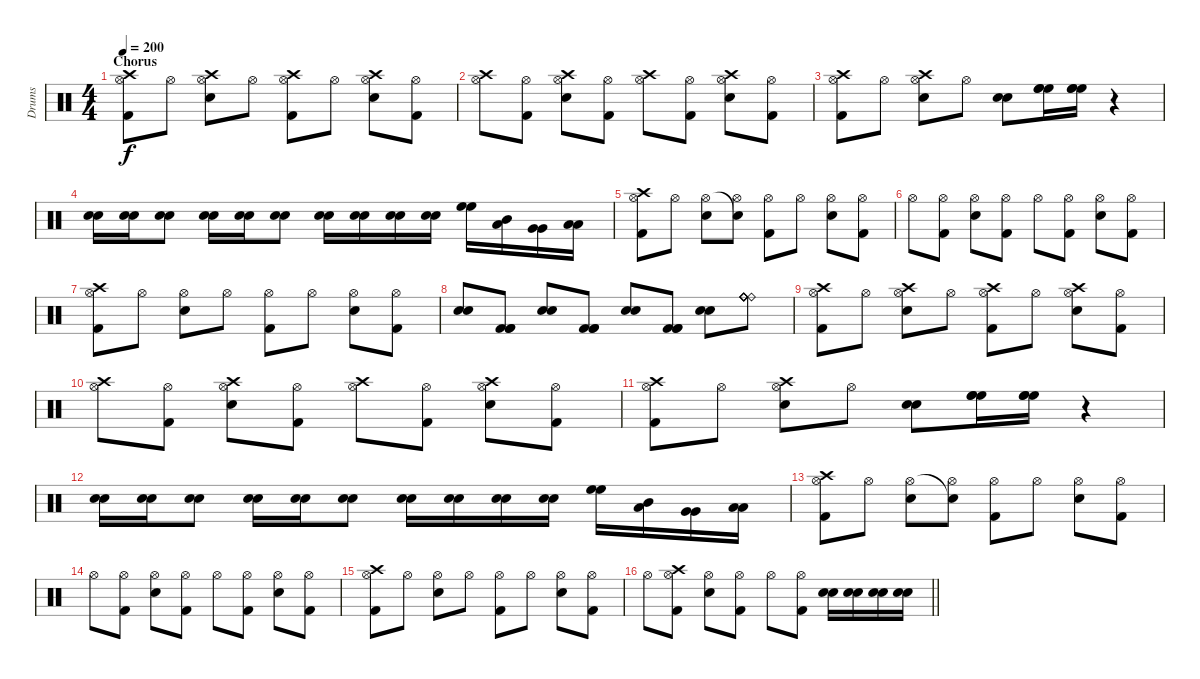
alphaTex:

\track ("Drums" "Drums") {instrument percussion}
\staff {score}
\articulation defaults
\ts (4 4)
\section ("" "Chorus")
\tempo 200
\clef neutral
\ks c
("Crash high (hit)" "Hi-Hat (open)" "Kick (hit) 2").8{dy f} "Hi-Hat (open)".8 ("Crash high (hit)" "Hi-Hat (open)" "Electric Snare (hit)").8 "Hi-Hat (open)".8 ("Crash high (hit)" "Hi-Hat (open)" "Kick (hit) 2").8 "Hi-Hat (open)".8 ("Crash high (hit)" "Hi-Hat (open)" "Electric Snare (hit)").8 ("Hi-Hat (open)" "Kick (hit) 2").8 |
("Crash high (hit)" "Hi-Hat (open)").8 ("Hi-Hat (open)" "Kick (hit) 2").8 ("Crash high (hit)" "Hi-Hat (open)" "Electric Snare (hit)").8 ("Hi-Hat (open)" "Kick (hit) 2").8 ("Crash high (hit)" "Hi-Hat (open)").8 ("Hi-Hat (open)" "Kick (hit) 2").8 ("Crash high (hit)" "Hi-Hat (open)" "Electric Snare (hit)").8 ("Hi-Hat (open)" "Kick (hit) 2").8 |
("Crash high (hit)" "Hi-Hat (open)" "Kick (hit) 2").8 "Hi-Hat (open)".8 ("Crash high (hit)" "Hi-Hat (open)" "Electric Snare (hit)").8 "Hi-Hat (open)".8 ("Snare (hit) 2" "Electric Snare (hit)").8 ("High Floor Tom (hit)" "High Floor Tom (hit)" "High Floor Tom (hit)").16 ("High Floor Tom (hit)" "High Floor Tom (hit)" "High Floor Tom (hit)").16 r.4 |
("Snare (hit) 2" "Electric Snare (hit)").16 ("Snare (hit) 2" "Electric Snare (hit)").16 ("Snare (hit) 2" "Electric Snare (hit)").8 ("Snare (hit) 2" "Electric Snare (hit)").16 ("Snare (hit) 2" "Electric Snare (hit)").16 ("Snare (hit) 2" "Electric Snare (hit)").8 ("Snare (hit) 2" "Electric Snare (hit)").16 ("Snare (hit) 2" "Electric Snare (hit)").16 ("Snare (hit) 2" "Electric Snare (hit)").16 ("Snare (hit) 2" "Electric Snare (hit)").16 ("High Floor Tom (hit)" "High Floor Tom (hit)").16 ("Low Tom (hit)" "Mid Tom (hit)").16 ("Very Low Tom (hit)" "Very Low Tom (hit)").16 ("Low Floor Tom (hit)" "Low Floor Tom (hit)").16 |
("Crash high (hit)" "Hi-Hat (open)" "Kick (hit) 2").8 "Hi-Hat (open)".8 ("Hi-Hat (open)" "Electric Snare (hit)").8 ("Snare (hit)"{t} "Hi-Hat (open)").8 ("Hi-Hat (open)" "Kick (hit) 2").8 "Hi-Hat (open)".8 ("Hi-Hat (open)" "Electric Snare (hit)").8 ("Hi-Hat (open)" "Kick (hit) 2").8 |
"Hi-Hat (open)".8 ("Hi-Hat (open)" "Kick (hit) 2").8 ("Hi-Hat (open)" "Electric Snare (hit)").8 ("Hi-Hat (open)" "Kick (hit) 2").8 "Hi-Hat (open)".8 ("Hi-Hat (open)" "Kick (hit) 2").8 ("Hi-Hat (open)" "Electric Snare (hit)").8 ("Hi-Hat (open)" "Kick (hit) 2").8 |
("Crash high (hit)" "Hi-Hat (open)" "Kick (hit) 2").8 "Hi-Hat (open)".8 ("Hi-Hat (open)" "Electric Snare (hit)").8 "Hi-Hat (open)".8 ("Hi-Hat (open)" "Kick (hit) 2").8 "Hi-Hat (open)".8 ("Hi-Hat (open)" "Electric Snare (hit)").8 ("Hi-Hat (open)" "Kick (hit) 2").8 |
("Snare (hit) 2" "Electric Snare (hit)").8 ("Kick (hit) 2" "Kick (hit) 2" "Kick (hit) 2").8 ("Snare (hit) 2" "Electric Snare (hit)").8 ("Kick (hit) 2" "Kick (hit) 2" "Kick (hit) 2").8 ("Snare (hit) 2" "Electric Snare (hit)").8 ("Kick (hit) 2" "Kick (hit) 2" "Kick (hit) 2").8 ("Snare (hit) 2" "Electric Snare (hit)").8 ("Ride (bell)" "Ride (bell)" "Ride (bell)" "Ride (bell)" "Ride (bell)" "Ride (bell)").8 |
("Crash high (hit)" "Hi-Hat (open)" "Kick (hit) 2").8 "Hi-Hat (open)".8 ("Crash high (hit)" "Hi-Hat (open)" "Electric Snare (hit)").8 "Hi-Hat (open)".8 ("Crash high (hit)" "Hi-Hat (open)" "Kick (hit) 2").8 "Hi-Hat (open)".8 ("Crash high (hit)" "Hi-Hat (open)" "Electric Snare (hit)").8 ("Hi-Hat (open)" "Kick (hit) 2").8 |
("Crash high (hit)" "Hi-Hat (open)").8 ("Hi-Hat (open)" "Kick (hit) 2").8 ("Crash high (hit)" "Hi-Hat (open)" "Electric Snare (hit)").8 ("Hi-Hat (open)" "Kick (hit) 2").8 ("Crash high (hit)" "Hi-Hat (open)").8 ("Hi-Hat (open)" "Kick (hit) 2").8 ("Crash high (hit)" "Hi-Hat (open)" "Electric Snare (hit)").8 ("Hi-Hat (open)" "Kick (hit) 2").8 |
("Crash high (hit)" "Hi-Hat (open)" "Kick (hit) 2").8 "Hi-Hat (open)".8 ("Crash high (hit)" "Hi-Hat (open)" "Electric Snare (hit)").8 "Hi-Hat (open)".8 ("Snare (hit) 2" "Electric Snare (hit)").8 ("High Floor Tom (hit)" "High Floor Tom (hit)" "High Floor Tom (hit)").16 ("High Floor Tom (hit)" "High Floor Tom (hit)" "High Floor Tom (hit)").16 r.4 |
("Snare (hit) 2" "Electric Snare (hit)").16 ("Snare (hit) 2" "Electric Snare (hit)").16 ("Snare (hit) 2" "Electric Snare (hit)").8 ("Snare (hit) 2" "Electric Snare (hit)").16 ("Snare (hit) 2" "Electric Snare (hit)").16 ("Snare (hit) 2" "Electric Snare (hit)").8 ("Snare (hit) 2" "Electric Snare (hit)").16 ("Snare (hit) 2" "Electric Snare (hit)").16 ("Snare (hit) 2" "Electric Snare (hit)").16 ("Snare (hit) 2" "Electric Snare (hit)").16 ("High Floor Tom (hit)" "High Floor Tom (hit)").16 ("Low Tom (hit)" "Mid Tom (hit)").16 ("Very Low Tom (hit)" "Very Low Tom (hit)").16 ("Low Floor Tom (hit)" "Low Floor Tom (hit)").16 |
("Crash high (hit)" "Hi-Hat (open)" "Kick (hit) 2").8 "Hi-Hat (open)".8 ("Hi-Hat (open)" "Electric Snare (hit)").8 ("Snare (hit)"{t} "Hi-Hat (open)").8 ("Hi-Hat (open)" "Kick (hit) 2").8 "Hi-Hat (open)".8 ("Hi-Hat (open)" "Electric Snare (hit)").8 ("Hi-Hat (open)" "Kick (hit) 2").8 |
"Hi-Hat (open)".8 ("Hi-Hat (open)" "Kick (hit) 2").8 ("Hi-Hat (open)" "Electric Snare (hit)").8 ("Hi-Hat (open)" "Kick (hit) 2").8 "Hi-Hat (open)".8 ("Hi-Hat (open)" "Kick (hit) 2").8 ("Hi-Hat (open)" "Electric Snare (hit)").8 ("Hi-Hat (open)" "Kick (hit) 2").8 |
("Crash high (hit)" "Hi-Hat (open)" "Kick (hit) 2").8 "Hi-Hat (open)".8 ("Hi-Hat (open)" "Electric Snare (hit)").8 "Hi-Hat (open)".8 ("Hi-Hat (open)" "Kick (hit) 2").8 "Hi-Hat (open)".8 ("Hi-Hat (open)" "Electric Snare (hit)").8 ("Hi-Hat (open)" "Kick (hit) 2").8 |
\barLineRight lightlight "Hi-Hat (open)".8
("Crash high (hit)" "Hi-Hat (open)" "Kick (hit) 2").8 ("Hi-Hat (open)" "Electric Snare (hit)").8 ("Hi-Hat (open)" "Kick (hit) 2").8 "Hi-Hat (open)".8 ("Hi-Hat (open)" "Kick (hit) 2").8 ("Electric Snare (hit)" "Snare (hit) 2").16 ("Electric Snare (hit)" "Snare (hit) 2").16 ("Electric Snare (hit)" "Snare (hit) 2").16 ("Electric Snare (hit)" "Snare (hit) 2").16
